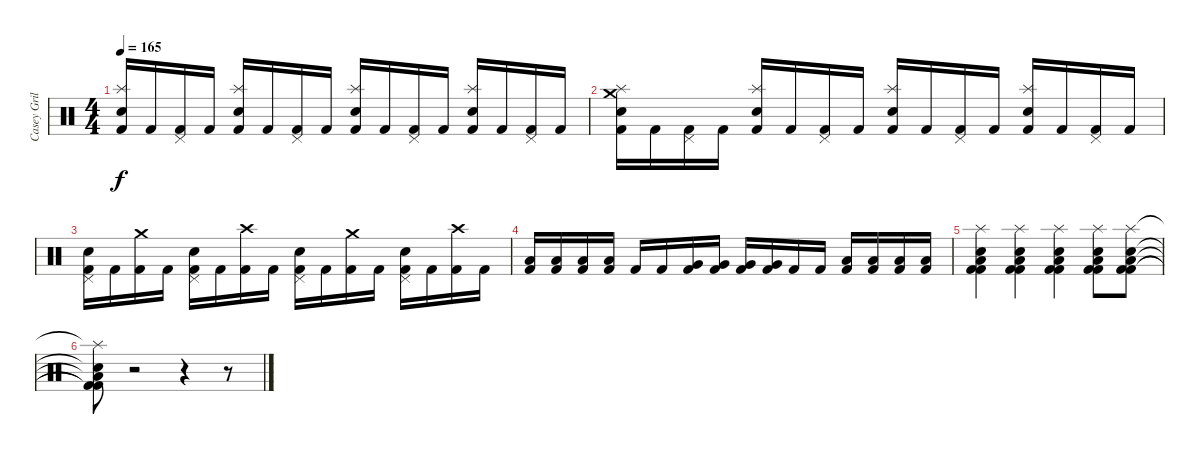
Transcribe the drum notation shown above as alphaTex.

\track ("Casey Grillo" "Casey Gril") {instrument percussion}
\staff {score}
\articulation defaults
\ts (4 4)
\tempo 165
\clef neutral
\ks c
("Electric Snare (hit)" "Splash (hit)" "Kick (hit) 2").16{dy f} "Kick (hit) 2".16 ("Pedal Hi-Hat (hit)" "Kick (hit) 2").16 "Kick (hit) 2".16 ("Electric Snare (hit)" "Splash (hit)" "Kick (hit) 2").16 "Kick (hit) 2".16 ("Pedal Hi-Hat (hit)" "Kick (hit) 2").16 "Kick (hit) 2".16 ("Electric Snare (hit)" "Splash (hit)" "Kick (hit) 2").16 "Kick (hit) 2".16 ("Pedal Hi-Hat (hit)" "Kick (hit) 2").16 "Kick (hit) 2".16 ("Electric Snare (hit)" "Splash (hit)" "Kick (hit) 2").16 "Kick (hit) 2".16 ("Pedal Hi-Hat (hit)" "Kick (hit) 2").16 "Kick (hit) 2".16 |
("Electric Snare (hit)" "Splash (hit)" "Crash medium (hit)" "Kick (hit) 2").16 "Kick (hit) 2".16 ("Pedal Hi-Hat (hit)" "Kick (hit) 2").16 "Kick (hit) 2".16 ("Electric Snare (hit)" "Splash (hit)" "Kick (hit) 2").16 "Kick (hit) 2".16 ("Pedal Hi-Hat (hit)" "Kick (hit) 2").16 "Kick (hit) 2".16 ("Electric Snare (hit)" "Splash (hit)" "Kick (hit) 2").16 "Kick (hit) 2".16 ("Pedal Hi-Hat (hit)" "Kick (hit) 2").16 "Kick (hit) 2".16 ("Electric Snare (hit)" "Splash (hit)" "Kick (hit) 2").16 "Kick (hit) 2".16 ("Pedal Hi-Hat (hit)" "Kick (hit) 2").16 "Kick (hit) 2".16 |
("Electric Snare (hit)" "Pedal Hi-Hat (hit)" "Kick (hit) 2").16 "Kick (hit) 2".16 ("Crash medium (hit)" "Kick (hit) 2").16 "Kick (hit) 2".16 ("Electric Snare (hit)" "Pedal Hi-Hat (hit)" "Kick (hit) 2").16 "Kick (hit) 2".16 ("Crash high (hit)" "Kick (hit) 2").16 "Kick (hit) 2".16 ("Electric Snare (hit)" "Pedal Hi-Hat (hit)" "Kick (hit) 2").16 "Kick (hit) 2".16 ("Crash medium (hit)" "Kick (hit) 2").16 "Kick (hit) 2".16 ("Electric Snare (hit)" "Pedal Hi-Hat (hit)" "Kick (hit) 2").16 "Kick (hit) 2".16 ("Crash high (hit)" "Kick (hit) 2").16 "Kick (hit) 2".16 |
("Low Tom (hit)" "Kick (hit) 2").16 ("Low Tom (hit)" "Kick (hit) 2").16 ("Low Tom (hit)" "Kick (hit) 2").16 ("Low Tom (hit)" "Kick (hit) 2").16 "Kick (hit) 2".16 "Kick (hit) 2".16 ("Very Low Tom (hit)" "Kick (hit) 2").16 ("Very Low Tom (hit)" "Kick (hit) 2").16 ("Very Low Tom (hit)" "Kick (hit) 2").16 ("Very Low Tom (hit)" "Kick (hit) 2").16 "Kick (hit) 2".16 "Kick (hit) 2".16 ("Low Tom (hit)" "Kick (hit) 2").16 ("Low Tom (hit)" "Kick (hit) 2").16 ("Low Tom (hit)" "Kick (hit) 2").16 ("Low Tom (hit)" "Kick (hit) 2").16 |
("Electric Snare (hit)" "Splash (hit)" "Low Tom (hit)" "Kick (hit) 2" "Kick (hit) 2").4 ("Electric Snare (hit)" "Splash (hit)" "Low Tom (hit)" "Kick (hit) 2" "Kick (hit) 2").4 ("Electric Snare (hit)" "Splash (hit)" "Low Tom (hit)" "Kick (hit) 2" "Kick (hit) 2").4 ("Electric Snare (hit)" "Splash (hit)" "Low Tom (hit)" "Kick (hit) 2" "Kick (hit) 2").8 ("Electric Snare (hit)" "Splash (hit)" "Low Tom (hit)" "Kick (hit) 2" "Kick (hit) 2").8 |
("Electric Snare (hit)"{t} "Splash (hit)"{t} "Low Tom (hit)"{t} "Kick (hit) 2"{t} "Kick (hit) 2"{t}).8 r.2 r.4 r.8
